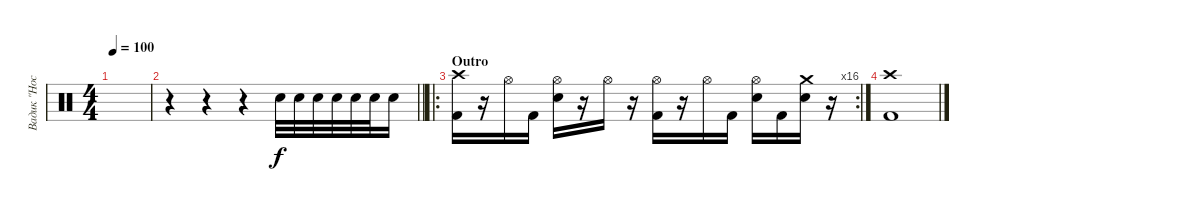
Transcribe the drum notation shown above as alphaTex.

\track ("Вадик \"Нос\"" "Вадик \"Нос") {instrument percussion}
\staff {score}
\articulation defaults
\ts (4 4)
\tempo 100
\clef neutral
\ks c
|
\barLineRight lightlight
r.4 r.4 r.4 "Snare (hit) 2".32 "Snare (hit) 2".32 "Snare (hit) 2".32 "Snare (hit) 2".32 "Snare (hit) 2".32 "Snare (hit) 2".32 "Snare (hit) 2".16 |
\ro
\rc 16
\section ("" "Outro")
("Crash high (hit)" "Kick (hit) 2").16 r.16 "Hi-Hat (open)".16 "Kick (hit) 2".16 ("Hi-Hat (open)" "Snare (hit) 2").16 r.16 "Hi-Hat (open)".16 r.16 ("Hi-Hat (open)" "Kick (hit) 2").16 r.16 "Hi-Hat (open)".16 "Kick (hit) 2".16 ("Hi-Hat (open)" "Snare (hit) 2").16 "Kick (hit) 2".16 ("Crash medium (hit)" "Snare (hit) 2").16 r.16 |
("Crash high (hit)" "Kick (hit) 2").1
